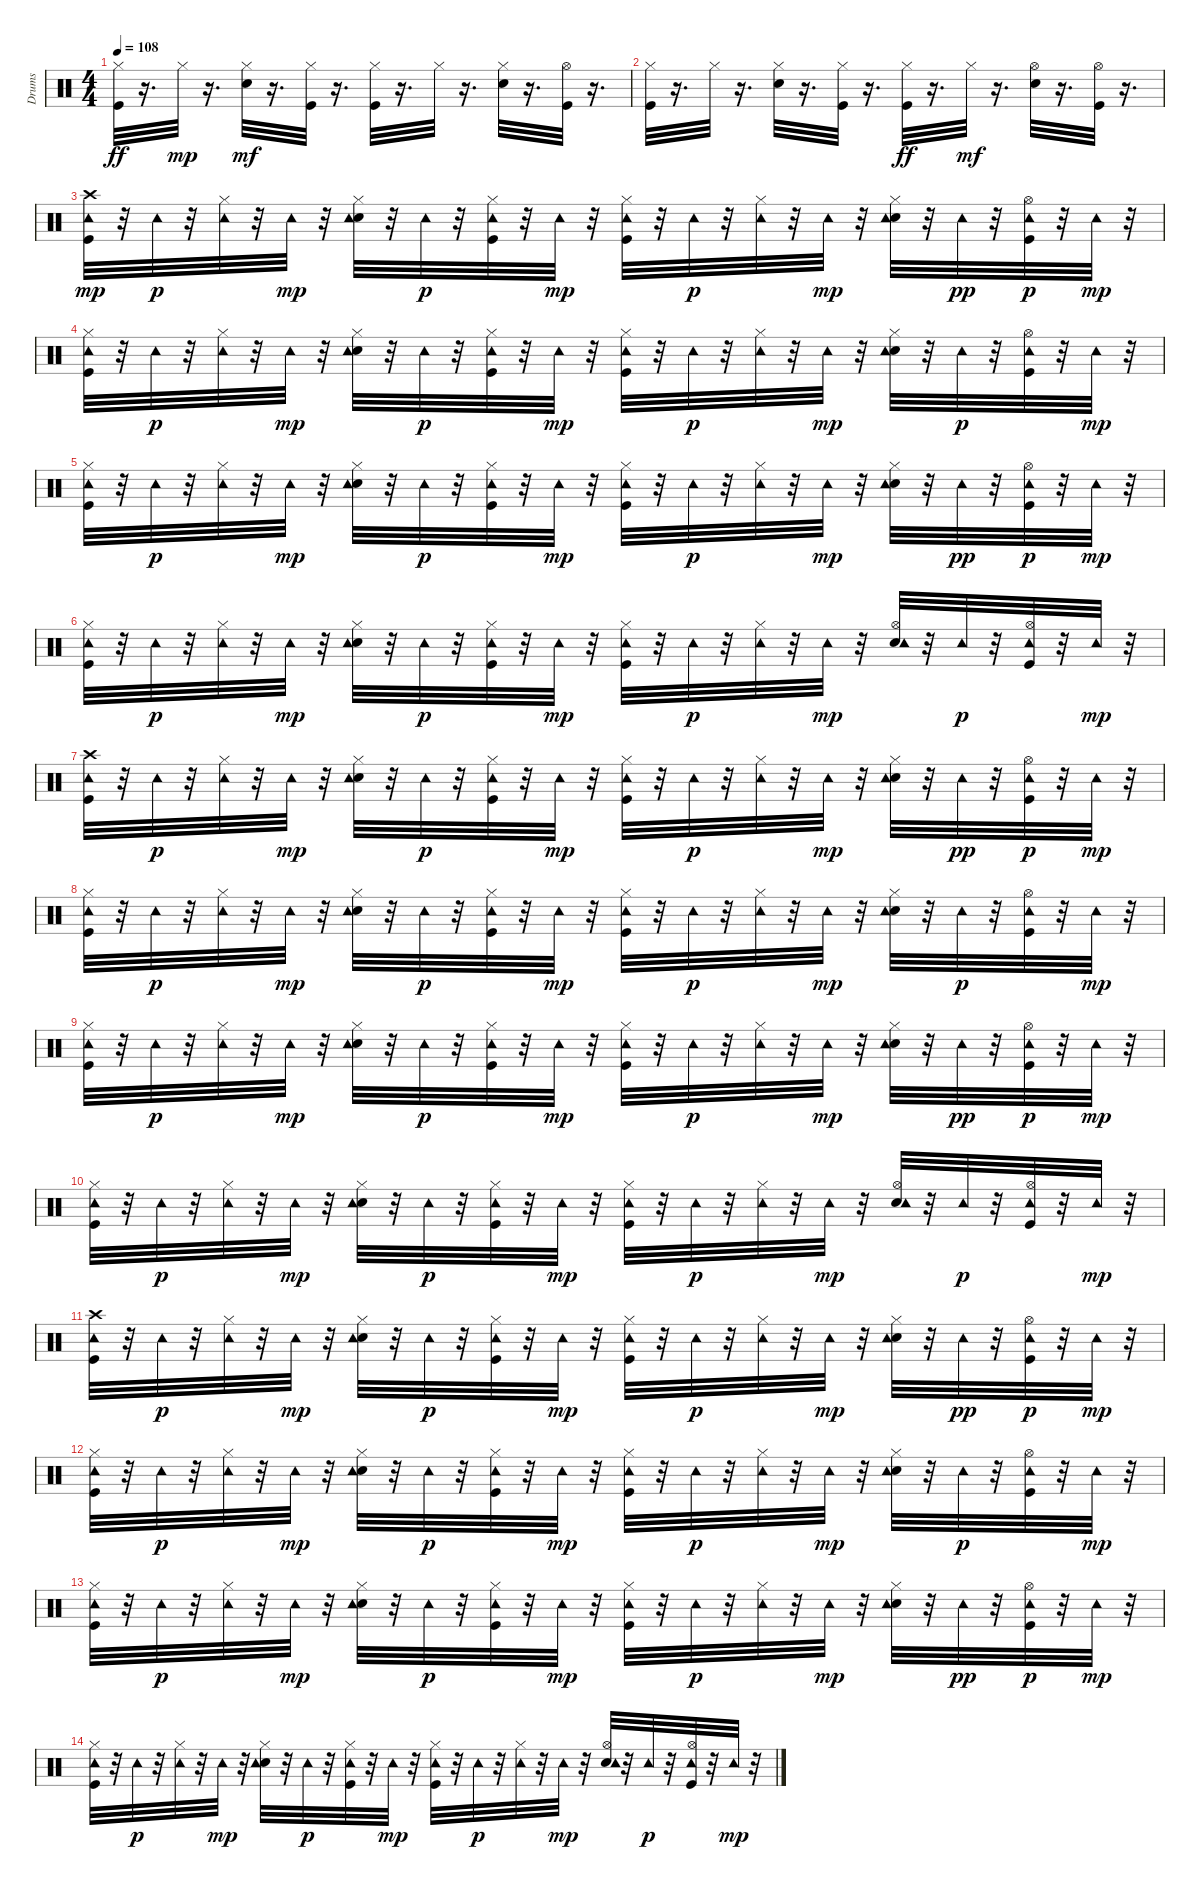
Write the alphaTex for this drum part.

\track ("Drums" "Drums") {instrument percussion}
\staff {score}
\articulation defaults
\ts (4 4)
\tempo 108
\clef neutral
\ks c
("Kick (hit)" "Hi-Hat (closed)").32{dy ff} r.16{d} "Hi-Hat (closed)".32{dy mp} r.16{d} ("Electric Snare (hit)" "Hi-Hat (closed)").32{dy mf} r.16{d} ("Kick (hit)" "Hi-Hat (closed)").32 r.16{d} ("Kick (hit)" "Hi-Hat (closed)").32 r.16{d} "Hi-Hat (closed)".32 r.16{d} ("Electric Snare (hit)" "Hi-Hat (closed)").32 r.16{d} ("Kick (hit)" "Hi-Hat (open)").32 r.16{d} |
("Kick (hit)" "Hi-Hat (closed)").32 r.16{d} "Hi-Hat (closed)".32 r.16{d} ("Electric Snare (hit)" "Hi-Hat (closed)").32 r.16{d} ("Kick (hit)" "Hi-Hat (closed)").32 r.16{d} ("Kick (hit)" "Hi-Hat (closed)").32{dy ff} r.16{d} "Hi-Hat (closed)".32{dy mf} r.16{d} ("Electric Snare (hit)" "Hi-Hat (open)").32 r.16{d} ("Kick (hit)" "Hi-Hat (open)").32 r.16{d} |
("Kick (hit)" "Crash high (hit)" "Tambourine (hit)").32{dy mp} r.32 "Tambourine (hit)".32{dy p} r.32 ("Hi-Hat (closed)" "Tambourine (hit)").32 r.32 "Tambourine (hit)".32{dy mp} r.32 ("Electric Snare (hit)" "Hi-Hat (closed)" "Tambourine (hit)").32 r.32 "Tambourine (hit)".32{dy p} r.32 ("Kick (hit)" "Hi-Hat (closed)" "Tambourine (hit)").32 r.32 "Tambourine (hit)".32{dy mp} r.32 ("Kick (hit)" "Hi-Hat (closed)" "Tambourine (hit)").32 r.32 "Tambourine (hit)".32{dy p} r.32 ("Hi-Hat (closed)" "Tambourine (hit)").32 r.32 "Tambourine (hit)".32{dy mp} r.32 ("Electric Snare (hit)" "Hi-Hat (closed)" "Tambourine (hit)").32 r.32 "Tambourine (hit)".32{dy pp} r.32 ("Kick (hit)" "Hi-Hat (open)" "Tambourine (hit)").32{dy p} r.32 "Tambourine (hit)".32{dy mp} r.32 |
("Kick (hit)" "Hi-Hat (closed)" "Tambourine (hit)").32 r.32 "Tambourine (hit)".32{dy p} r.32 ("Hi-Hat (closed)" "Tambourine (hit)").32 r.32 "Tambourine (hit)".32{dy mp} r.32 ("Electric Snare (hit)" "Hi-Hat (closed)" "Tambourine (hit)").32 r.32 "Tambourine (hit)".32{dy p} r.32 ("Kick (hit)" "Hi-Hat (closed)" "Tambourine (hit)").32 r.32 "Tambourine (hit)".32{dy mp} r.32 ("Kick (hit)" "Hi-Hat (closed)" "Tambourine (hit)").32 r.32 "Tambourine (hit)".32{dy p} r.32 ("Hi-Hat (closed)" "Tambourine (hit)").32 r.32 "Tambourine (hit)".32{dy mp} r.32 ("Electric Snare (hit)" "Hi-Hat (closed)" "Tambourine (hit)").32 r.32 "Tambourine (hit)".32{dy p} r.32 ("Kick (hit)" "Hi-Hat (open)" "Tambourine (hit)").32 r.32 "Tambourine (hit)".32{dy mp} r.32 |
("Kick (hit)" "Hi-Hat (closed)" "Tambourine (hit)").32 r.32 "Tambourine (hit)".32{dy p} r.32 ("Hi-Hat (closed)" "Tambourine (hit)").32 r.32 "Tambourine (hit)".32{dy mp} r.32 ("Electric Snare (hit)" "Hi-Hat (closed)" "Tambourine (hit)").32 r.32 "Tambourine (hit)".32{dy p} r.32 ("Kick (hit)" "Hi-Hat (closed)" "Tambourine (hit)").32 r.32 "Tambourine (hit)".32{dy mp} r.32 ("Kick (hit)" "Hi-Hat (closed)" "Tambourine (hit)").32 r.32 "Tambourine (hit)".32{dy p} r.32 ("Hi-Hat (closed)" "Tambourine (hit)").32 r.32 "Tambourine (hit)".32{dy mp} r.32 ("Electric Snare (hit)" "Hi-Hat (closed)" "Tambourine (hit)").32 r.32 "Tambourine (hit)".32{dy pp} r.32 ("Kick (hit)" "Hi-Hat (open)" "Tambourine (hit)").32{dy p} r.32 "Tambourine (hit)".32{dy mp} r.32 |
("Kick (hit)" "Hi-Hat (closed)" "Tambourine (hit)").32 r.32 "Tambourine (hit)".32{dy p} r.32 ("Hi-Hat (closed)" "Tambourine (hit)").32 r.32 "Tambourine (hit)".32{dy mp} r.32 ("Electric Snare (hit)" "Hi-Hat (closed)" "Tambourine (hit)").32 r.32 "Tambourine (hit)".32{dy p} r.32 ("Kick (hit)" "Hi-Hat (closed)" "Tambourine (hit)").32 r.32 "Tambourine (hit)".32{dy mp} r.32 ("Kick (hit)" "Hi-Hat (closed)" "Tambourine (hit)").32 r.32 "Tambourine (hit)".32{dy p} r.32 ("Hi-Hat (closed)" "Tambourine (hit)").32 r.32 "Tambourine (hit)".32{dy mp} r.32 ("Electric Snare (hit)" "Hi-Hat (open)" "Tambourine (hit)").32 r.32 "Tambourine (hit)".32{dy p} r.32 ("Kick (hit)" "Hi-Hat (open)" "Tambourine (hit)").32 r.32 "Tambourine (hit)".32{dy mp} r.32 |
("Kick (hit)" "Crash high (hit)" "Tambourine (hit)").32 r.32 "Tambourine (hit)".32{dy p} r.32 ("Hi-Hat (closed)" "Tambourine (hit)").32 r.32 "Tambourine (hit)".32{dy mp} r.32 ("Electric Snare (hit)" "Hi-Hat (closed)" "Tambourine (hit)").32 r.32 "Tambourine (hit)".32{dy p} r.32 ("Kick (hit)" "Hi-Hat (closed)" "Tambourine (hit)").32 r.32 "Tambourine (hit)".32{dy mp} r.32 ("Kick (hit)" "Hi-Hat (closed)" "Tambourine (hit)").32 r.32 "Tambourine (hit)".32{dy p} r.32 ("Hi-Hat (closed)" "Tambourine (hit)").32 r.32 "Tambourine (hit)".32{dy mp} r.32 ("Electric Snare (hit)" "Hi-Hat (closed)" "Tambourine (hit)").32 r.32 "Tambourine (hit)".32{dy pp} r.32 ("Kick (hit)" "Hi-Hat (open)" "Tambourine (hit)").32{dy p} r.32 "Tambourine (hit)".32{dy mp} r.32 |
("Kick (hit)" "Hi-Hat (closed)" "Tambourine (hit)").32 r.32 "Tambourine (hit)".32{dy p} r.32 ("Hi-Hat (closed)" "Tambourine (hit)").32 r.32 "Tambourine (hit)".32{dy mp} r.32 ("Electric Snare (hit)" "Hi-Hat (closed)" "Tambourine (hit)").32 r.32 "Tambourine (hit)".32{dy p} r.32 ("Kick (hit)" "Hi-Hat (closed)" "Tambourine (hit)").32 r.32 "Tambourine (hit)".32{dy mp} r.32 ("Kick (hit)" "Hi-Hat (closed)" "Tambourine (hit)").32 r.32 "Tambourine (hit)".32{dy p} r.32 ("Hi-Hat (closed)" "Tambourine (hit)").32 r.32 "Tambourine (hit)".32{dy mp} r.32 ("Electric Snare (hit)" "Hi-Hat (closed)" "Tambourine (hit)").32 r.32 "Tambourine (hit)".32{dy p} r.32 ("Kick (hit)" "Hi-Hat (open)" "Tambourine (hit)").32 r.32 "Tambourine (hit)".32{dy mp} r.32 |
("Kick (hit)" "Hi-Hat (closed)" "Tambourine (hit)").32 r.32 "Tambourine (hit)".32{dy p} r.32 ("Hi-Hat (closed)" "Tambourine (hit)").32 r.32 "Tambourine (hit)".32{dy mp} r.32 ("Electric Snare (hit)" "Hi-Hat (closed)" "Tambourine (hit)").32 r.32 "Tambourine (hit)".32{dy p} r.32 ("Kick (hit)" "Hi-Hat (closed)" "Tambourine (hit)").32 r.32 "Tambourine (hit)".32{dy mp} r.32 ("Kick (hit)" "Hi-Hat (closed)" "Tambourine (hit)").32 r.32 "Tambourine (hit)".32{dy p} r.32 ("Hi-Hat (closed)" "Tambourine (hit)").32 r.32 "Tambourine (hit)".32{dy mp} r.32 ("Electric Snare (hit)" "Hi-Hat (closed)" "Tambourine (hit)").32 r.32 "Tambourine (hit)".32{dy pp} r.32 ("Kick (hit)" "Hi-Hat (open)" "Tambourine (hit)").32{dy p} r.32 "Tambourine (hit)".32{dy mp} r.32 |
("Kick (hit)" "Hi-Hat (closed)" "Tambourine (hit)").32 r.32 "Tambourine (hit)".32{dy p} r.32 ("Hi-Hat (closed)" "Tambourine (hit)").32 r.32 "Tambourine (hit)".32{dy mp} r.32 ("Electric Snare (hit)" "Hi-Hat (closed)" "Tambourine (hit)").32 r.32 "Tambourine (hit)".32{dy p} r.32 ("Kick (hit)" "Hi-Hat (closed)" "Tambourine (hit)").32 r.32 "Tambourine (hit)".32{dy mp} r.32 ("Kick (hit)" "Hi-Hat (closed)" "Tambourine (hit)").32 r.32 "Tambourine (hit)".32{dy p} r.32 ("Hi-Hat (closed)" "Tambourine (hit)").32 r.32 "Tambourine (hit)".32{dy mp} r.32 ("Electric Snare (hit)" "Hi-Hat (open)" "Tambourine (hit)").32 r.32 "Tambourine (hit)".32{dy p} r.32 ("Kick (hit)" "Hi-Hat (open)" "Tambourine (hit)").32 r.32 "Tambourine (hit)".32{dy mp} r.32 |
("Kick (hit)" "Crash high (hit)" "Tambourine (hit)").32 r.32 "Tambourine (hit)".32{dy p} r.32 ("Hi-Hat (closed)" "Tambourine (hit)").32 r.32 "Tambourine (hit)".32{dy mp} r.32 ("Electric Snare (hit)" "Hi-Hat (closed)" "Tambourine (hit)").32 r.32 "Tambourine (hit)".32{dy p} r.32 ("Kick (hit)" "Hi-Hat (closed)" "Tambourine (hit)").32 r.32 "Tambourine (hit)".32{dy mp} r.32 ("Kick (hit)" "Hi-Hat (closed)" "Tambourine (hit)").32 r.32 "Tambourine (hit)".32{dy p} r.32 ("Hi-Hat (closed)" "Tambourine (hit)").32 r.32 "Tambourine (hit)".32{dy mp} r.32 ("Electric Snare (hit)" "Hi-Hat (closed)" "Tambourine (hit)").32 r.32 "Tambourine (hit)".32{dy pp} r.32 ("Kick (hit)" "Hi-Hat (open)" "Tambourine (hit)").32{dy p} r.32 "Tambourine (hit)".32{dy mp} r.32 |
("Kick (hit)" "Hi-Hat (closed)" "Tambourine (hit)").32 r.32 "Tambourine (hit)".32{dy p} r.32 ("Hi-Hat (closed)" "Tambourine (hit)").32 r.32 "Tambourine (hit)".32{dy mp} r.32 ("Electric Snare (hit)" "Hi-Hat (closed)" "Tambourine (hit)").32 r.32 "Tambourine (hit)".32{dy p} r.32 ("Kick (hit)" "Hi-Hat (closed)" "Tambourine (hit)").32 r.32 "Tambourine (hit)".32{dy mp} r.32 ("Kick (hit)" "Hi-Hat (closed)" "Tambourine (hit)").32 r.32 "Tambourine (hit)".32{dy p} r.32 ("Hi-Hat (closed)" "Tambourine (hit)").32 r.32 "Tambourine (hit)".32{dy mp} r.32 ("Electric Snare (hit)" "Hi-Hat (closed)" "Tambourine (hit)").32 r.32 "Tambourine (hit)".32{dy p} r.32 ("Kick (hit)" "Hi-Hat (open)" "Tambourine (hit)").32 r.32 "Tambourine (hit)".32{dy mp} r.32 |
("Kick (hit)" "Hi-Hat (closed)" "Tambourine (hit)").32 r.32 "Tambourine (hit)".32{dy p} r.32 ("Hi-Hat (closed)" "Tambourine (hit)").32 r.32 "Tambourine (hit)".32{dy mp} r.32 ("Electric Snare (hit)" "Hi-Hat (closed)" "Tambourine (hit)").32 r.32 "Tambourine (hit)".32{dy p} r.32 ("Kick (hit)" "Hi-Hat (closed)" "Tambourine (hit)").32 r.32 "Tambourine (hit)".32{dy mp} r.32 ("Kick (hit)" "Hi-Hat (closed)" "Tambourine (hit)").32 r.32 "Tambourine (hit)".32{dy p} r.32 ("Hi-Hat (closed)" "Tambourine (hit)").32 r.32 "Tambourine (hit)".32{dy mp} r.32 ("Electric Snare (hit)" "Hi-Hat (closed)" "Tambourine (hit)").32 r.32 "Tambourine (hit)".32{dy pp} r.32 ("Kick (hit)" "Hi-Hat (open)" "Tambourine (hit)").32{dy p} r.32 "Tambourine (hit)".32{dy mp} r.32 |
("Kick (hit)" "Hi-Hat (closed)" "Tambourine (hit)").32 r.32 "Tambourine (hit)".32{dy p} r.32 ("Hi-Hat (closed)" "Tambourine (hit)").32 r.32 "Tambourine (hit)".32{dy mp} r.32 ("Electric Snare (hit)" "Hi-Hat (closed)" "Tambourine (hit)").32 r.32 "Tambourine (hit)".32{dy p} r.32 ("Kick (hit)" "Hi-Hat (closed)" "Tambourine (hit)").32 r.32 "Tambourine (hit)".32{dy mp} r.32 ("Kick (hit)" "Hi-Hat (closed)" "Tambourine (hit)").32 r.32 "Tambourine (hit)".32{dy p} r.32 ("Hi-Hat (closed)" "Tambourine (hit)").32 r.32 "Tambourine (hit)".32{dy mp} r.32 ("Electric Snare (hit)" "Hi-Hat (open)" "Tambourine (hit)").32 r.32 "Tambourine (hit)".32{dy p} r.32 ("Kick (hit)" "Hi-Hat (open)" "Tambourine (hit)").32 r.32 "Tambourine (hit)".32{dy mp} r.32
